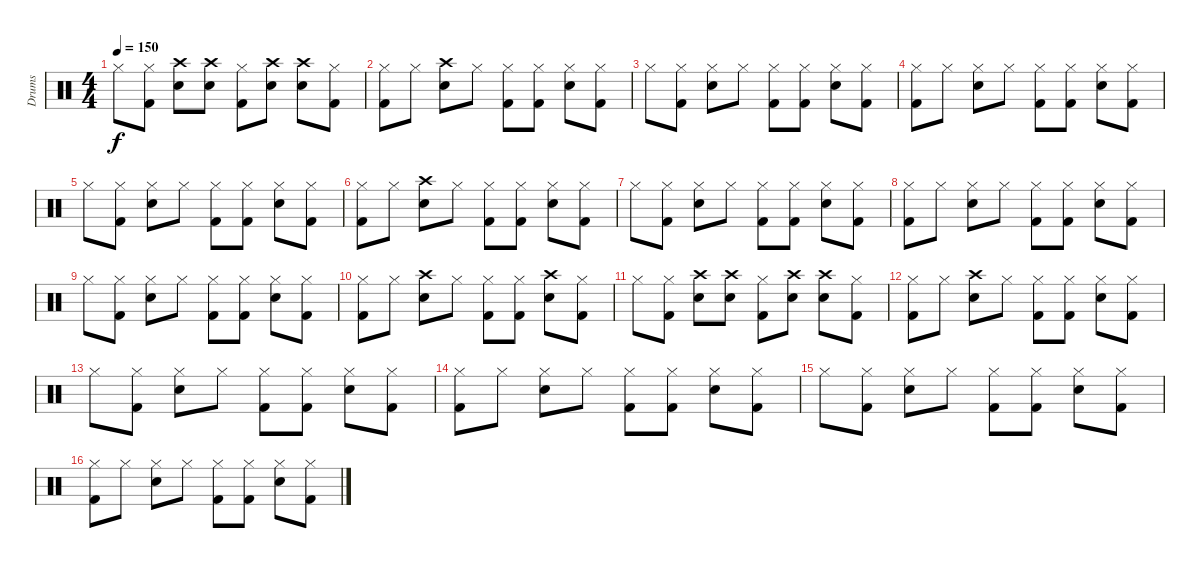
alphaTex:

\track ("Drums" "Drums") {instrument percussion}
\staff {score}
\articulation defaults
\ts (4 4)
\tempo 150
\clef neutral
\ks c "Hi-Hat (closed)".8{dy f}
("Kick (hit) 2" "Hi-Hat (closed)").8 ("Crash high (hit)" "Snare (hit) 2").8 ("Crash high (hit)" "Snare (hit) 2").8 ("Kick (hit) 2" "Hi-Hat (closed)").8 ("Crash high (hit)" "Snare (hit) 2").8 ("Crash high (hit)" "Snare (hit) 2").8 ("Kick (hit) 2" "Hi-Hat (closed)").8 |
("Kick (hit) 2" "Hi-Hat (closed)").8 "Hi-Hat (closed)".8 ("Snare (hit) 2" "Crash high (hit)").8 "Hi-Hat (closed)".8 ("Kick (hit) 2" "Hi-Hat (closed)").8 ("Kick (hit) 2" "Hi-Hat (closed)").8 ("Snare (hit) 2" "Hi-Hat (closed)").8 ("Kick (hit) 2" "Hi-Hat (closed)").8 |
"Hi-Hat (closed)".8 ("Kick (hit) 2" "Hi-Hat (closed)").8 ("Snare (hit) 2" "Hi-Hat (closed)").8 "Hi-Hat (closed)".8 ("Kick (hit) 2" "Hi-Hat (closed)").8 ("Kick (hit) 2" "Hi-Hat (closed)").8 ("Snare (hit) 2" "Hi-Hat (closed)").8 ("Kick (hit) 2" "Hi-Hat (closed)").8 |
("Kick (hit) 2" "Hi-Hat (closed)").8 "Hi-Hat (closed)".8 ("Snare (hit) 2" "Hi-Hat (closed)").8 "Hi-Hat (closed)".8 ("Kick (hit) 2" "Hi-Hat (closed)").8 ("Kick (hit) 2" "Hi-Hat (closed)").8 ("Snare (hit) 2" "Hi-Hat (closed)").8 ("Kick (hit) 2" "Hi-Hat (closed)").8 |
"Hi-Hat (closed)".8 ("Kick (hit) 2" "Hi-Hat (closed)").8 ("Snare (hit) 2" "Hi-Hat (closed)").8 "Hi-Hat (closed)".8 ("Kick (hit) 2" "Hi-Hat (closed)").8 ("Kick (hit) 2" "Hi-Hat (closed)").8 ("Snare (hit) 2" "Hi-Hat (closed)").8 ("Kick (hit) 2" "Hi-Hat (closed)").8 |
("Kick (hit) 2" "Hi-Hat (closed)").8 "Hi-Hat (closed)".8 ("Snare (hit) 2" "Crash high (hit)").8 "Hi-Hat (closed)".8 ("Kick (hit) 2" "Hi-Hat (closed)").8 ("Kick (hit) 2" "Hi-Hat (closed)").8 ("Snare (hit) 2" "Hi-Hat (closed)").8 ("Kick (hit) 2" "Hi-Hat (closed)").8 |
"Hi-Hat (closed)".8 ("Kick (hit) 2" "Hi-Hat (closed)").8 ("Snare (hit) 2" "Hi-Hat (closed)").8 "Hi-Hat (closed)".8 ("Kick (hit) 2" "Hi-Hat (closed)").8 ("Kick (hit) 2" "Hi-Hat (closed)").8 ("Snare (hit) 2" "Hi-Hat (closed)").8 ("Kick (hit) 2" "Hi-Hat (closed)").8 |
("Kick (hit) 2" "Hi-Hat (closed)").8 "Hi-Hat (closed)".8 ("Snare (hit) 2" "Hi-Hat (closed)").8 "Hi-Hat (closed)".8 ("Kick (hit) 2" "Hi-Hat (closed)").8 ("Kick (hit) 2" "Hi-Hat (closed)").8 ("Snare (hit) 2" "Hi-Hat (closed)").8 ("Kick (hit) 2" "Hi-Hat (closed)").8 |
"Hi-Hat (closed)".8 ("Kick (hit) 2" "Hi-Hat (closed)").8 ("Snare (hit) 2" "Hi-Hat (closed)").8 "Hi-Hat (closed)".8 ("Kick (hit) 2" "Hi-Hat (closed)").8 ("Kick (hit) 2" "Hi-Hat (closed)").8 ("Snare (hit) 2" "Hi-Hat (closed)").8 ("Kick (hit) 2" "Hi-Hat (closed)").8 |
("Kick (hit) 2" "Hi-Hat (closed)").8 "Hi-Hat (closed)".8 ("Snare (hit) 2" "Crash high (hit)").8 "Hi-Hat (closed)".8 ("Kick (hit) 2" "Hi-Hat (closed)").8 ("Kick (hit) 2" "Hi-Hat (closed)").8 ("Crash high (hit)" "Snare (hit) 2").8 ("Kick (hit) 2" "Hi-Hat (closed)").8 |
"Hi-Hat (closed)".8 ("Kick (hit) 2" "Hi-Hat (closed)").8 ("Crash high (hit)" "Snare (hit) 2").8 ("Crash high (hit)" "Snare (hit) 2").8 ("Kick (hit) 2" "Hi-Hat (closed)").8 ("Snare (hit) 2" "Crash high (hit)").8 ("Crash high (hit)" "Snare (hit) 2").8 ("Kick (hit) 2" "Hi-Hat (closed)").8 |
("Kick (hit) 2" "Hi-Hat (closed)").8 "Hi-Hat (closed)".8 ("Crash high (hit)" "Snare (hit) 2").8 "Hi-Hat (closed)".8 ("Kick (hit) 2" "Hi-Hat (closed)").8 ("Kick (hit) 2" "Hi-Hat (closed)").8 ("Snare (hit) 2" "Hi-Hat (closed)").8 ("Kick (hit) 2" "Hi-Hat (closed)").8 |
"Hi-Hat (closed)".8 ("Kick (hit) 2" "Hi-Hat (closed)").8 ("Snare (hit) 2" "Hi-Hat (closed)").8 "Hi-Hat (closed)".8 ("Kick (hit) 2" "Hi-Hat (closed)").8 ("Kick (hit) 2" "Hi-Hat (closed)").8 ("Snare (hit) 2" "Hi-Hat (closed)").8 ("Kick (hit) 2" "Hi-Hat (closed)").8 |
("Kick (hit) 2" "Hi-Hat (closed)").8 "Hi-Hat (closed)".8 ("Snare (hit) 2" "Hi-Hat (closed)").8 "Hi-Hat (closed)".8 ("Kick (hit) 2" "Hi-Hat (closed)").8 ("Kick (hit) 2" "Hi-Hat (closed)").8 ("Snare (hit) 2" "Hi-Hat (closed)").8 ("Kick (hit) 2" "Hi-Hat (closed)").8 |
"Hi-Hat (closed)".8 ("Kick (hit) 2" "Hi-Hat (closed)").8 ("Snare (hit) 2" "Hi-Hat (closed)").8 "Hi-Hat (closed)".8 ("Kick (hit) 2" "Hi-Hat (closed)").8 ("Kick (hit) 2" "Hi-Hat (closed)").8 ("Snare (hit) 2" "Hi-Hat (closed)").8 ("Kick (hit) 2" "Hi-Hat (closed)").8 |
("Kick (hit) 2" "Hi-Hat (closed)").8 "Hi-Hat (closed)".8 ("Snare (hit) 2" "Hi-Hat (closed)").8 "Hi-Hat (closed)".8 ("Kick (hit) 2" "Hi-Hat (closed)").8 ("Kick (hit) 2" "Hi-Hat (closed)").8 ("Snare (hit) 2" "Hi-Hat (closed)").8 ("Kick (hit) 2" "Hi-Hat (closed)").8
